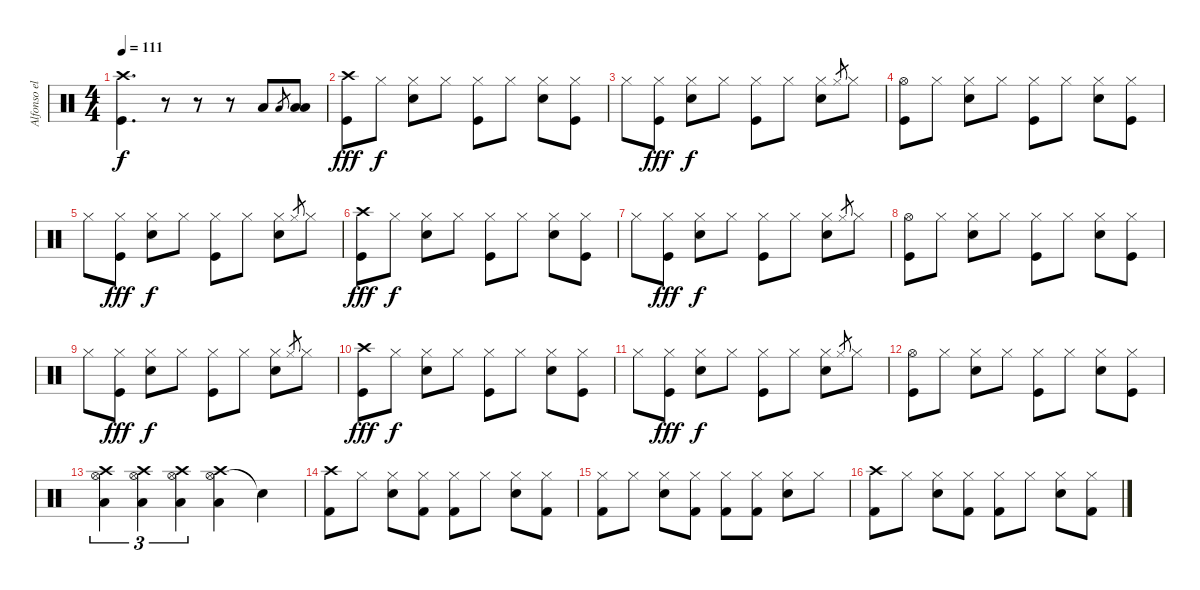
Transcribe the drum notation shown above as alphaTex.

\track ("Alfonso el flaco Andre" "Alfonso el") {instrument percussion}
\staff {score}
\articulation defaults
\ts (4 4)
\tempo 111
\clef neutral
\ks c
("Crash high (hit)" "Kick (hit)").4{d dy f} r.8 r.8 r.8 "Low Tom (hit)".8 "Low Floor Tom (hit)".8{gr} ("Low Floor Tom (hit)" "Low Floor Tom (hit)").8 |
("Crash high (hit)" "Kick (hit)").8{dy fff} "Hi-Hat (closed)".8{dy f} ("Hi-Hat (closed)" "Snare (hit) 2").8 "Hi-Hat (closed)".8 ("Hi-Hat (closed)" "Kick (hit)").8 "Hi-Hat (closed)".8 ("Hi-Hat (closed)" "Snare (hit) 2").8 ("Hi-Hat (closed)" "Kick (hit)").8 |
"Hi-Hat (closed)".8 ("Hi-Hat (closed)" "Kick (hit)").8{dy fff} ("Hi-Hat (closed)" "Snare (hit) 2").8{dy f} "Hi-Hat (closed)".8 ("Hi-Hat (closed)" "Kick (hit)").8 "Hi-Hat (closed)".8 ("Hi-Hat (closed)" "Snare (hit) 2").8 "Hi-Hat (closed)".8{gr} "Hi-Hat (closed)".8 |
("Hi-Hat (open)" "Kick (hit)").8 "Hi-Hat (closed)".8 ("Hi-Hat (closed)" "Snare (hit) 2").8 "Hi-Hat (closed)".8 ("Hi-Hat (closed)" "Kick (hit)").8 "Hi-Hat (closed)".8 ("Hi-Hat (closed)" "Snare (hit) 2").8 ("Hi-Hat (closed)" "Kick (hit)").8 |
"Hi-Hat (closed)".8 ("Hi-Hat (closed)" "Kick (hit)").8{dy fff} ("Hi-Hat (closed)" "Snare (hit) 2").8{dy f} "Hi-Hat (closed)".8 ("Hi-Hat (closed)" "Kick (hit)").8 "Hi-Hat (closed)".8 ("Hi-Hat (closed)" "Snare (hit) 2").8 "Hi-Hat (closed)".8{gr} "Hi-Hat (closed)".8 |
("Crash high (hit)" "Kick (hit)").8{dy fff} "Hi-Hat (closed)".8{dy f} ("Hi-Hat (closed)" "Snare (hit) 2").8 "Hi-Hat (closed)".8 ("Hi-Hat (closed)" "Kick (hit)").8 "Hi-Hat (closed)".8 ("Hi-Hat (closed)" "Snare (hit) 2").8 ("Hi-Hat (closed)" "Kick (hit)").8 |
"Hi-Hat (closed)".8 ("Hi-Hat (closed)" "Kick (hit)").8{dy fff} ("Hi-Hat (closed)" "Snare (hit) 2").8{dy f} "Hi-Hat (closed)".8 ("Hi-Hat (closed)" "Kick (hit)").8 "Hi-Hat (closed)".8 ("Hi-Hat (closed)" "Snare (hit) 2").8 "Hi-Hat (closed)".8{gr} "Hi-Hat (closed)".8 |
("Hi-Hat (open)" "Kick (hit)").8 "Hi-Hat (closed)".8 ("Hi-Hat (closed)" "Snare (hit) 2").8 "Hi-Hat (closed)".8 ("Hi-Hat (closed)" "Kick (hit)").8 "Hi-Hat (closed)".8 ("Hi-Hat (closed)" "Snare (hit) 2").8 ("Hi-Hat (closed)" "Kick (hit)").8 |
"Hi-Hat (closed)".8 ("Hi-Hat (closed)" "Kick (hit)").8{dy fff} ("Hi-Hat (closed)" "Snare (hit) 2").8{dy f} "Hi-Hat (closed)".8 ("Hi-Hat (closed)" "Kick (hit)").8 "Hi-Hat (closed)".8 ("Hi-Hat (closed)" "Snare (hit) 2").8 "Hi-Hat (closed)".8{gr} "Hi-Hat (closed)".8 |
("Crash high (hit)" "Kick (hit)").8{dy fff} "Hi-Hat (closed)".8{dy f} ("Hi-Hat (closed)" "Snare (hit) 2").8 "Hi-Hat (closed)".8 ("Hi-Hat (closed)" "Kick (hit)").8 "Hi-Hat (closed)".8 ("Hi-Hat (closed)" "Snare (hit) 2").8 ("Hi-Hat (closed)" "Kick (hit)").8 |
"Hi-Hat (closed)".8 ("Hi-Hat (closed)" "Kick (hit)").8{dy fff} ("Hi-Hat (closed)" "Snare (hit) 2").8{dy f} "Hi-Hat (closed)".8 ("Hi-Hat (closed)" "Kick (hit)").8 "Hi-Hat (closed)".8 ("Hi-Hat (closed)" "Snare (hit) 2").8 "Hi-Hat (closed)".8{gr} "Hi-Hat (closed)".8 |
("Hi-Hat (open)" "Kick (hit)").8 "Hi-Hat (closed)".8 ("Hi-Hat (closed)" "Snare (hit) 2").8 "Hi-Hat (closed)".8 ("Hi-Hat (closed)" "Kick (hit)").8 "Hi-Hat (closed)".8 ("Hi-Hat (closed)" "Snare (hit) 2").8 ("Hi-Hat (closed)" "Kick (hit)").8 |
("Hi-Hat (open)" "Crash high (hit)" "Low Floor Tom (hit)").4{tu (3 2)} ("Hi-Hat (open)" "Crash high (hit)" "Low Floor Tom (hit)").4{tu (3 2)} ("Hi-Hat (open)" "Crash high (hit)" "Low Floor Tom (hit)").4{tu (3 2)} ("Hi-Hat (open)" "Crash high (hit)" "Low Floor Tom (hit)").4 "Snare (hit)"{t}.4 |
("Crash high (hit)" "Kick (hit) 2").8 "Hi-Hat (closed)".8 ("Hi-Hat (closed)" "Snare (hit) 2").8 ("Hi-Hat (closed)" "Kick (hit) 2").8 ("Hi-Hat (closed)" "Kick (hit) 2").8 "Hi-Hat (closed)".8 ("Hi-Hat (closed)" "Snare (hit) 2").8 ("Hi-Hat (closed)" "Kick (hit) 2").8 |
("Hi-Hat (closed)" "Kick (hit) 2").8 "Hi-Hat (closed)".8 ("Hi-Hat (closed)" "Snare (hit) 2").8 ("Hi-Hat (closed)" "Kick (hit) 2").8 ("Hi-Hat (closed)" "Kick (hit) 2").8 ("Hi-Hat (closed)" "Kick (hit) 2").8 ("Hi-Hat (closed)" "Snare (hit) 2").8 "Hi-Hat (closed)".8 |
("Crash high (hit)" "Kick (hit) 2").8 "Hi-Hat (closed)".8 ("Hi-Hat (closed)" "Snare (hit) 2").8 ("Hi-Hat (closed)" "Kick (hit) 2").8 ("Hi-Hat (closed)" "Kick (hit) 2").8 "Hi-Hat (closed)".8 ("Hi-Hat (closed)" "Snare (hit) 2").8 ("Hi-Hat (closed)" "Kick (hit) 2").8
